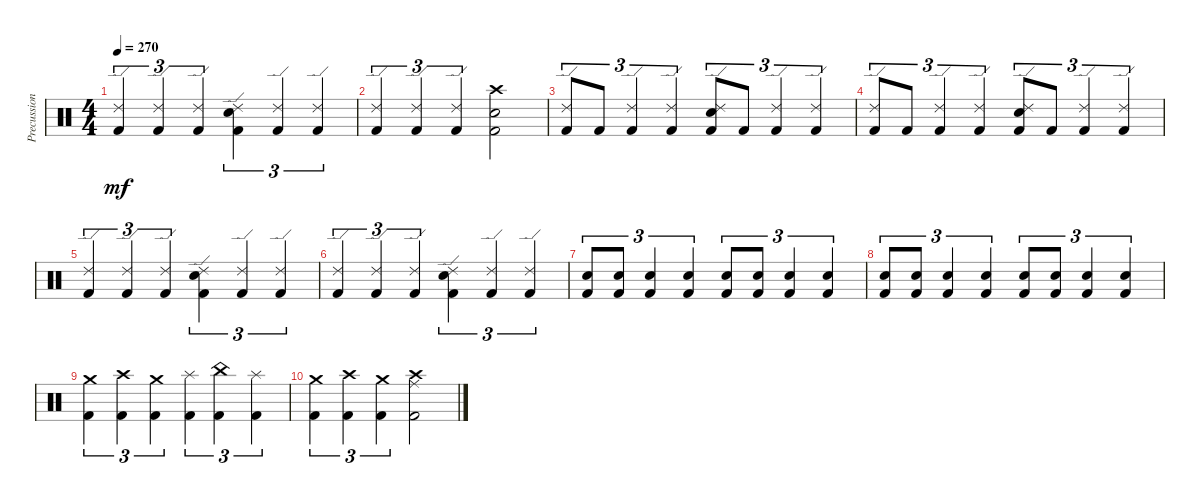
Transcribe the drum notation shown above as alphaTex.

\track ("Precussion" "Precussion") {instrument percussion}
\staff {score}
\articulation defaults
\ts (4 4)
\tempo 270
\clef neutral
\ks c
("Ride (edge) 2" "Kick (hit) 2").4{tu (3 2) dy mf} ("Ride (edge) 2" "Kick (hit) 2").4{tu (3 2)} ("Ride (edge) 2" "Kick (hit) 2").4{tu (3 2)} ("Ride (edge) 2" "Electric Snare (hit)" "Kick (hit) 2").4{tu (3 2)} ("Ride (edge) 2" "Kick (hit) 2").4{tu (3 2)} ("Ride (edge) 2" "Kick (hit) 2").4{tu (3 2)} |
("Ride (edge) 2" "Kick (hit) 2").4{tu (3 2)} ("Ride (edge) 2" "Kick (hit) 2").4{tu (3 2)} ("Ride (edge) 2" "Kick (hit) 2").4{tu (3 2)} ("Crash high (hit)" "Electric Snare (hit)" "Kick (hit) 2").2 |
("Ride (edge) 2" "Kick (hit) 2").8{tu (3 2)} "Kick (hit) 2".8{tu (3 2)} ("Ride (edge) 2" "Kick (hit) 2").4{tu (3 2)} ("Ride (edge) 2" "Kick (hit) 2").4{tu (3 2)} ("Ride (edge) 2" "Electric Snare (hit)" "Kick (hit) 2").8{tu (3 2)} "Kick (hit) 2".8{tu (3 2)} ("Ride (edge) 2" "Kick (hit) 2").4{tu (3 2)} ("Ride (edge) 2" "Kick (hit) 2").4{tu (3 2)} |
("Ride (edge) 2" "Kick (hit) 2").8{tu (3 2)} "Kick (hit) 2".8{tu (3 2)} ("Ride (edge) 2" "Kick (hit) 2").4{tu (3 2)} ("Ride (edge) 2" "Kick (hit) 2").4{tu (3 2)} ("Ride (edge) 2" "Electric Snare (hit)" "Kick (hit) 2").8{tu (3 2)} "Kick (hit) 2".8{tu (3 2)} ("Ride (edge) 2" "Kick (hit) 2").4{tu (3 2)} ("Ride (edge) 2" "Kick (hit) 2").4{tu (3 2)} |
("Ride (edge) 2" "Kick (hit) 2").4{tu (3 2)} ("Ride (edge) 2" "Kick (hit) 2").4{tu (3 2)} ("Ride (edge) 2" "Kick (hit) 2").4{tu (3 2)} ("Ride (edge) 2" "Electric Snare (hit)" "Kick (hit) 2").4{tu (3 2)} ("Ride (edge) 2" "Kick (hit) 2").4{tu (3 2)} ("Ride (edge) 2" "Kick (hit) 2").4{tu (3 2)} |
("Ride (edge) 2" "Kick (hit) 2").4{tu (3 2)} ("Ride (edge) 2" "Kick (hit) 2").4{tu (3 2)} ("Ride (edge) 2" "Kick (hit) 2").4{tu (3 2)} ("Ride (edge) 2" "Electric Snare (hit)" "Kick (hit) 2").4{tu (3 2)} ("Ride (edge) 2" "Kick (hit) 2").4{tu (3 2)} ("Ride (edge) 2" "Kick (hit) 2").4{tu (3 2)} |
("Electric Snare (hit)" "Kick (hit) 2").8{tu (3 2)} ("Electric Snare (hit)" "Kick (hit) 2").8{tu (3 2)} ("Electric Snare (hit)" "Kick (hit) 2").4{tu (3 2)} ("Electric Snare (hit)" "Kick (hit) 2").4{tu (3 2)} ("Electric Snare (hit)" "Kick (hit) 2").8{tu (3 2)} ("Electric Snare (hit)" "Kick (hit) 2").8{tu (3 2)} ("Electric Snare (hit)" "Kick (hit) 2").4{tu (3 2)} ("Electric Snare (hit)" "Kick (hit) 2").4{tu (3 2)} |
("Electric Snare (hit)" "Kick (hit) 2").8{tu (3 2)} ("Electric Snare (hit)" "Kick (hit) 2").8{tu (3 2)} ("Electric Snare (hit)" "Kick (hit) 2").4{tu (3 2)} ("Electric Snare (hit)" "Kick (hit) 2").4{tu (3 2)} ("Electric Snare (hit)" "Kick (hit) 2").8{tu (3 2)} ("Electric Snare (hit)" "Kick (hit) 2").8{tu (3 2)} ("Electric Snare (hit)" "Kick (hit) 2").4{tu (3 2)} ("Electric Snare (hit)" "Kick (hit) 2").4{tu (3 2)} |
("Crash medium (hit)" "Kick (hit) 2").4{tu (3 2)} ("Crash high (hit)" "Kick (hit) 2").4{tu (3 2)} ("Crash medium (hit)" "Kick (hit) 2").4{tu (3 2)} ("Splash (hit)" "Kick (hit) 2").4{tu (3 2)} ("China (hit)" "Kick (hit) 2").4{tu (3 2)} ("Splash (hit)" "Kick (hit) 2").4{tu (3 2)} |
("Crash medium (hit)" "Kick (hit) 2").4{tu (3 2)} ("Crash high (hit)" "Kick (hit) 2").4{tu (3 2)} ("Crash medium (hit)" "Kick (hit) 2").4{tu (3 2)} ("Crash high (hit)" "Ride (middle)" "Kick (hit) 2").2
